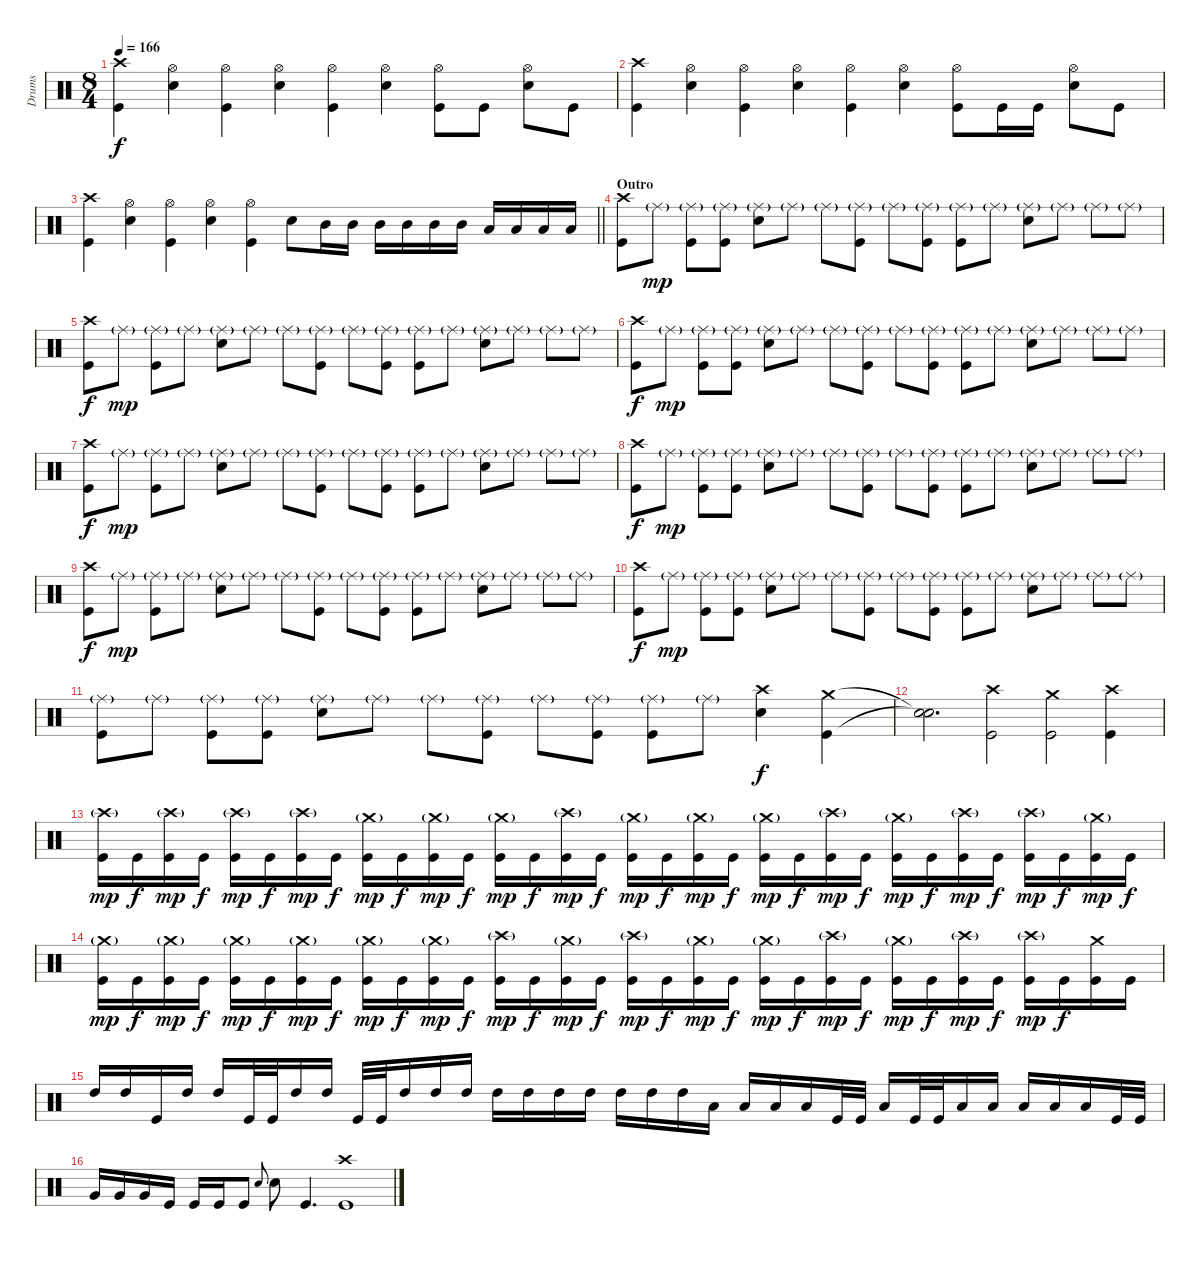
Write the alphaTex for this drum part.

\track ("Drums" "Drums") {instrument percussion}
\staff {score}
\articulation defaults
\ts (8 4)
\tempo 166
\clef neutral
\ks c
("Crash high (hit)" "Kick (hit)").4{dy f} ("Hi-Hat (open)" "Snare (hit) 2").4 ("Hi-Hat (open)" "Kick (hit)").4 ("Hi-Hat (open)" "Snare (hit) 2").4 ("Hi-Hat (open)" "Kick (hit)").4 ("Hi-Hat (open)" "Snare (hit) 2").4 ("Hi-Hat (open)" "Kick (hit)").8 "Kick (hit)".8 ("Hi-Hat (open)" "Snare (hit) 2").8 "Kick (hit)".8 |
("Crash high (hit)" "Kick (hit)").4 ("Hi-Hat (open)" "Snare (hit) 2").4 ("Hi-Hat (open)" "Kick (hit)").4 ("Hi-Hat (open)" "Snare (hit) 2").4 ("Hi-Hat (open)" "Kick (hit)").4 ("Hi-Hat (open)" "Snare (hit) 2").4 ("Hi-Hat (open)" "Kick (hit)").8 "Kick (hit)".16 "Kick (hit)".16 ("Hi-Hat (open)" "Snare (hit) 2").8 "Kick (hit)".8 |
\barLineRight lightlight
("Crash high (hit)" "Kick (hit)").4 ("Hi-Hat (open)" "Snare (hit) 2").4 ("Hi-Hat (open)" "Kick (hit)").4 ("Hi-Hat (open)" "Snare (hit) 2").4 ("Hi-Hat (open)" "Kick (hit)").4 "Snare (hit) 2".8 "Mid Tom (hit)".16 "Mid Tom (hit)".16 "Mid Tom (hit)".16 "Mid Tom (hit)".16 "Mid Tom (hit)".16 "Mid Tom (hit)".16 "Low Tom (hit)".16 "Low Tom (hit)".16 "Low Tom (hit)".16 "Low Tom (hit)".16 |
\section ("" "Outro")
("Crash high (hit)" "Kick (hit)").8 "Ride (middle)"{g}.8{dy mp} ("Ride (middle)"{g} "Kick (hit)").8 ("Ride (middle)"{g} "Kick (hit)").8 ("Ride (middle)"{g} "Snare (hit) 2").8 "Ride (middle)"{g}.8 "Ride (middle)"{g}.8 ("Ride (middle)"{g} "Kick (hit)").8 "Ride (middle)"{g}.8 ("Ride (middle)"{g} "Kick (hit)").8 ("Ride (middle)"{g} "Kick (hit)").8 "Ride (middle)"{g}.8 ("Ride (middle)"{g} "Snare (hit) 2").8 "Ride (middle)"{g}.8 "Ride (middle)"{g}.8 "Ride (middle)"{g}.8 |
("Crash high (hit)" "Kick (hit)").8{dy f} "Ride (middle)"{g}.8{dy mp} ("Ride (middle)"{g} "Kick (hit)").8 "Ride (middle)"{g}.8 ("Ride (middle)"{g} "Snare (hit) 2").8 "Ride (middle)"{g}.8 "Ride (middle)"{g}.8 ("Ride (middle)"{g} "Kick (hit)").8 "Ride (middle)"{g}.8 ("Ride (middle)"{g} "Kick (hit)").8 ("Ride (middle)"{g} "Kick (hit)").8 "Ride (middle)"{g}.8 ("Ride (middle)"{g} "Snare (hit) 2").8 "Ride (middle)"{g}.8 "Ride (middle)"{g}.8 "Ride (middle)"{g}.8 |
("Crash high (hit)" "Kick (hit)").8{dy f} "Ride (middle)"{g}.8{dy mp} ("Ride (middle)"{g} "Kick (hit)").8 ("Ride (middle)"{g} "Kick (hit)").8 ("Ride (middle)"{g} "Snare (hit) 2").8 "Ride (middle)"{g}.8 "Ride (middle)"{g}.8 ("Ride (middle)"{g} "Kick (hit)").8 "Ride (middle)"{g}.8 ("Ride (middle)"{g} "Kick (hit)").8 ("Ride (middle)"{g} "Kick (hit)").8 "Ride (middle)"{g}.8 ("Ride (middle)"{g} "Snare (hit) 2").8 "Ride (middle)"{g}.8 "Ride (middle)"{g}.8 "Ride (middle)"{g}.8 |
("Crash high (hit)" "Kick (hit)").8{dy f} "Ride (middle)"{g}.8{dy mp} ("Ride (middle)"{g} "Kick (hit)").8 "Ride (middle)"{g}.8 ("Ride (middle)"{g} "Snare (hit) 2").8 "Ride (middle)"{g}.8 "Ride (middle)"{g}.8 ("Ride (middle)"{g} "Kick (hit)").8 "Ride (middle)"{g}.8 ("Ride (middle)"{g} "Kick (hit)").8 ("Ride (middle)"{g} "Kick (hit)").8 "Ride (middle)"{g}.8 ("Ride (middle)"{g} "Snare (hit) 2").8 "Ride (middle)"{g}.8 "Ride (middle)"{g}.8 "Ride (middle)"{g}.8 |
("Crash high (hit)" "Kick (hit)").8{dy f} "Ride (middle)"{g}.8{dy mp} ("Ride (middle)"{g} "Kick (hit)").8 ("Ride (middle)"{g} "Kick (hit)").8 ("Ride (middle)"{g} "Snare (hit) 2").8 "Ride (middle)"{g}.8 "Ride (middle)"{g}.8 ("Ride (middle)"{g} "Kick (hit)").8 "Ride (middle)"{g}.8 ("Ride (middle)"{g} "Kick (hit)").8 ("Ride (middle)"{g} "Kick (hit)").8 "Ride (middle)"{g}.8 ("Ride (middle)"{g} "Snare (hit) 2").8 "Ride (middle)"{g}.8 "Ride (middle)"{g}.8 "Ride (middle)"{g}.8 |
("Crash high (hit)" "Kick (hit)").8{dy f} "Ride (middle)"{g}.8{dy mp} ("Ride (middle)"{g} "Kick (hit)").8 "Ride (middle)"{g}.8 ("Ride (middle)"{g} "Snare (hit) 2").8 "Ride (middle)"{g}.8 "Ride (middle)"{g}.8 ("Ride (middle)"{g} "Kick (hit)").8 "Ride (middle)"{g}.8 ("Ride (middle)"{g} "Kick (hit)").8 ("Ride (middle)"{g} "Kick (hit)").8 "Ride (middle)"{g}.8 ("Ride (middle)"{g} "Snare (hit) 2").8 "Ride (middle)"{g}.8 "Ride (middle)"{g}.8 "Ride (middle)"{g}.8 |
("Crash high (hit)" "Kick (hit)").8{dy f} "Ride (middle)"{g}.8{dy mp} ("Ride (middle)"{g} "Kick (hit)").8 ("Ride (middle)"{g} "Kick (hit)").8 ("Ride (middle)"{g} "Snare (hit) 2").8 "Ride (middle)"{g}.8 "Ride (middle)"{g}.8 ("Ride (middle)"{g} "Kick (hit)").8 "Ride (middle)"{g}.8 ("Ride (middle)"{g} "Kick (hit)").8 ("Ride (middle)"{g} "Kick (hit)").8 "Ride (middle)"{g}.8 ("Ride (middle)"{g} "Snare (hit) 2").8 "Ride (middle)"{g}.8 "Ride (middle)"{g}.8 "Ride (middle)"{g}.8 |
("Ride (middle)"{g} "Kick (hit)").8 "Ride (middle)"{g}.8 ("Ride (middle)"{g} "Kick (hit)").8 ("Ride (middle)"{g} "Kick (hit)").8 ("Ride (middle)"{g} "Snare (hit) 2").8 "Ride (middle)"{g}.8 "Ride (middle)"{g}.8 ("Ride (middle)"{g} "Kick (hit)").8 "Ride (middle)"{g}.8 ("Ride (middle)"{g} "Kick (hit)").8 ("Ride (middle)"{g} "Kick (hit)").8 "Ride (middle)"{g}.8 ("Crash high (hit)" "Snare (hit) 2").4{dy f} ("Crash medium (hit)" "Kick (hit)").4 |
("Snare (hit)"{t} "Snare (hit)"{t}).2{d} ("Crash high (hit)" "Kick (hit)").2 ("Crash medium (hit)" "Kick (hit)").2 ("Crash high (hit)" "Kick (hit)").4 |
("Crash high (hit)"{g} "Kick (hit)").16{dy mp} "Kick (hit)".16{dy f} ("Crash high (hit)"{g} "Kick (hit)").16{dy mp} "Kick (hit)".16{dy f} ("Crash high (hit)"{g} "Kick (hit)").16{dy mp} "Kick (hit)".16{dy f} ("Crash high (hit)"{g} "Kick (hit)").16{dy mp} "Kick (hit)".16{dy f} ("Crash medium (hit)"{g} "Kick (hit)").16{dy mp} "Kick (hit)".16{dy f} ("Crash medium (hit)"{g} "Kick (hit)").16{dy mp} "Kick (hit)".16{dy f} ("Crash medium (hit)"{g} "Kick (hit)").16{dy mp} "Kick (hit)".16{dy f} ("Crash high (hit)"{g} "Kick (hit)").16{dy mp} "Kick (hit)".16{dy f} ("Crash medium (hit)"{g} "Kick (hit)").16{dy mp} "Kick (hit)".16{dy f} ("Crash medium (hit)"{g} "Kick (hit)").16{dy mp} "Kick (hit)".16{dy f} ("Crash medium (hit)"{g} "Kick (hit)").16{dy mp} "Kick (hit)".16{dy f} ("Crash high (hit)"{g} "Kick (hit)").16{dy mp} "Kick (hit)".16{dy f} ("Crash medium (hit)"{g} "Kick (hit)").16{dy mp} "Kick (hit)".16{dy f} ("Crash high (hit)"{g} "Kick (hit)").16{dy mp} "Kick (hit)".16{dy f} ("Crash high (hit)"{g} "Kick (hit)").16{dy mp} "Kick (hit)".16{dy f} ("Crash medium (hit)"{g} "Kick (hit)").16{dy mp} "Kick (hit)".16{dy f} |
("Crash medium (hit)"{g} "Kick (hit)").16{dy mp} "Kick (hit)".16{dy f} ("Crash medium (hit)"{g} "Kick (hit)").16{dy mp} "Kick (hit)".16{dy f} ("Crash medium (hit)"{g} "Kick (hit)").16{dy mp} "Kick (hit)".16{dy f} ("Crash medium (hit)"{g} "Kick (hit)").16{dy mp} "Kick (hit)".16{dy f} ("Crash medium (hit)"{g} "Kick (hit)").16{dy mp} "Kick (hit)".16{dy f} ("Crash medium (hit)"{g} "Kick (hit)").16{dy mp} "Kick (hit)".16{dy f} ("Crash high (hit)"{g} "Kick (hit)").16{dy mp} "Kick (hit)".16{dy f} ("Crash medium (hit)"{g} "Kick (hit)").16{dy mp} "Kick (hit)".16{dy f} ("Crash high (hit)"{g} "Kick (hit)").16{dy mp} "Kick (hit)".16{dy f} ("Crash medium (hit)"{g} "Kick (hit)").16{dy mp} "Kick (hit)".16{dy f} ("Crash medium (hit)"{g} "Kick (hit)").16{dy mp} "Kick (hit)".16{dy f} ("Crash high (hit)"{g} "Kick (hit)").16{dy mp} "Kick (hit)".16{dy f} ("Crash medium (hit)"{g} "Kick (hit)").16{dy mp} "Kick (hit)".16{dy f} ("Crash high (hit)"{g} "Kick (hit)").16{dy mp} "Kick (hit)".16{dy f} ("Crash high (hit)"{g} "Kick (hit)").16{dy mp} "Kick (hit)".16{dy f} ("Crash medium (hit)" "Kick (hit)").16 "Kick (hit)".16 |
"High Tom (hit)".16 "High Tom (hit)".16 "Kick (hit)".16 "High Tom (hit)".16 "High Tom (hit)".16 "Kick (hit)".32 "Kick (hit)".32 "High Tom (hit)".16 "High Tom (hit)".16 "Kick (hit)".32 "Kick (hit)".32 "High Tom (hit)".16 "High Tom (hit)".16 "High Tom (hit)".16 "High Tom (hit)".16 "High Tom (hit)".16 "High Tom (hit)".16 "High Tom (hit)".16 "High Tom (hit)".16 "High Tom (hit)".16 "High Tom (hit)".16 "Low Tom (hit)".16 "Low Tom (hit)".16 "Low Tom (hit)".16 "Low Tom (hit)".16 "Kick (hit)".32 "Kick (hit)".32 "Low Tom (hit)".16 "Kick (hit)".32 "Kick (hit)".32 "Low Tom (hit)".16 "Low Tom (hit)".16 "Low Tom (hit)".16 "Low Tom (hit)".16 "Low Tom (hit)".16 "Kick (hit)".32 "Kick (hit)".32 |
"Very Low Tom (hit)".16 "Very Low Tom (hit)".16 "Very Low Tom (hit)".16 "Kick (hit)".16 "Kick (hit)".16 "Kick (hit)".16 "Kick (hit)".8 "Snare (hit) 2".8{gr onbeat} "Snare (hit) 2".8 "Kick (hit)".4{d} ("Crash high (hit)" "Kick (hit)").1
